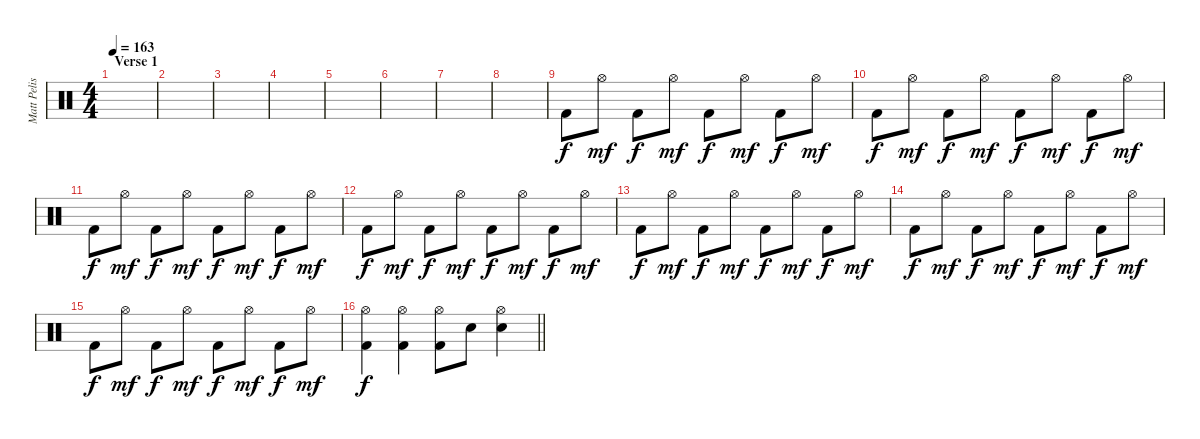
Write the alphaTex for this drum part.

\track ("Matt Pelissier (Drums)" "Matt Pelis") {instrument percussion}
\staff {score}
\articulation defaults
\ts (4 4)
\section ("" "Verse 1")
\tempo 163
\clef neutral
\ks c
|
|
|
|
|
|
|
|
"Kick (hit) 2".8 "Hi-Hat (open)".8{dy mf} "Kick (hit) 2".8{dy f} "Hi-Hat (open)".8{dy mf} "Kick (hit) 2".8{dy f} "Hi-Hat (open)".8{dy mf} "Kick (hit) 2".8{dy f} "Hi-Hat (open)".8{dy mf} |
"Kick (hit) 2".8{dy f} "Hi-Hat (open)".8{dy mf} "Kick (hit) 2".8{dy f} "Hi-Hat (open)".8{dy mf} "Kick (hit) 2".8{dy f} "Hi-Hat (open)".8{dy mf} "Kick (hit) 2".8{dy f} "Hi-Hat (open)".8{dy mf} |
"Kick (hit) 2".8{dy f} "Hi-Hat (open)".8{dy mf} "Kick (hit) 2".8{dy f} "Hi-Hat (open)".8{dy mf} "Kick (hit) 2".8{dy f} "Hi-Hat (open)".8{dy mf} "Kick (hit) 2".8{dy f} "Hi-Hat (open)".8{dy mf} |
"Kick (hit) 2".8{dy f} "Hi-Hat (open)".8{dy mf} "Kick (hit) 2".8{dy f} "Hi-Hat (open)".8{dy mf} "Kick (hit) 2".8{dy f} "Hi-Hat (open)".8{dy mf} "Kick (hit) 2".8{dy f} "Hi-Hat (open)".8{dy mf} |
"Kick (hit) 2".8{dy f} "Hi-Hat (open)".8{dy mf} "Kick (hit) 2".8{dy f} "Hi-Hat (open)".8{dy mf} "Kick (hit) 2".8{dy f} "Hi-Hat (open)".8{dy mf} "Kick (hit) 2".8{dy f} "Hi-Hat (open)".8{dy mf} |
"Kick (hit) 2".8{dy f} "Hi-Hat (open)".8{dy mf} "Kick (hit) 2".8{dy f} "Hi-Hat (open)".8{dy mf} "Kick (hit) 2".8{dy f} "Hi-Hat (open)".8{dy mf} "Kick (hit) 2".8{dy f} "Hi-Hat (open)".8{dy mf} |
"Kick (hit) 2".8{dy f} "Hi-Hat (open)".8{dy mf} "Kick (hit) 2".8{dy f} "Hi-Hat (open)".8{dy mf} "Kick (hit) 2".8{dy f} "Hi-Hat (open)".8{dy mf} "Kick (hit) 2".8{dy f} "Hi-Hat (open)".8{dy mf} |
\barLineRight lightlight
("Hi-Hat (open)" "Kick (hit) 2").4{dy f} ("Hi-Hat (open)" "Kick (hit) 2").4 ("Hi-Hat (open)" "Kick (hit) 2").8 "Electric Snare (hit)".8 ("Electric Snare (hit)" "Hi-Hat (open)").4
